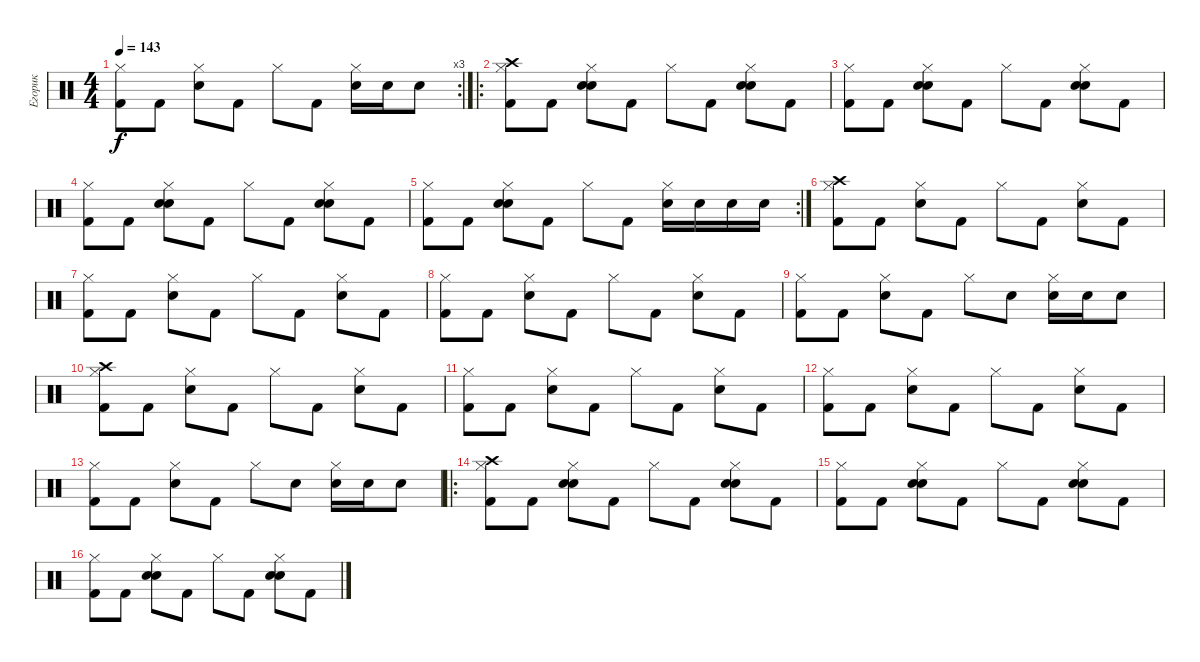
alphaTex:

\track ("Егорик" "Егорик") {instrument percussion}
\staff {score}
\articulation defaults
\rc 3
\ts (4 4)
\tempo 143
\clef neutral
\ks c
("Hi-Hat (closed)" "Kick (hit) 2").8{dy f} "Kick (hit) 2".8 ("Hi-Hat (closed)" "Electric Snare (hit)").8 "Kick (hit) 2".8 "Hi-Hat (closed)".8 "Kick (hit) 2".8 ("Hi-Hat (closed)" "Electric Snare (hit)").16 "Electric Snare (hit)".16 "Electric Snare (hit)".8 |
\ro
("Hi-Hat (closed)" "Crash high (hit)" "Kick (hit) 2").8 "Kick (hit) 2".8 ("Hi-Hat (closed)" "Snare (hit) 2" "Electric Snare (hit)").8 "Kick (hit) 2".8 "Hi-Hat (closed)".8 "Kick (hit) 2".8 ("Hi-Hat (closed)" "Snare (hit) 2" "Electric Snare (hit)").8 "Kick (hit) 2".8 |
("Hi-Hat (closed)" "Kick (hit) 2").8 "Kick (hit) 2".8 ("Hi-Hat (closed)" "Snare (hit) 2" "Electric Snare (hit)").8 "Kick (hit) 2".8 "Hi-Hat (closed)".8 "Kick (hit) 2".8 ("Hi-Hat (closed)" "Snare (hit) 2" "Electric Snare (hit)").8 "Kick (hit) 2".8 |
("Hi-Hat (closed)" "Kick (hit) 2").8 "Kick (hit) 2".8 ("Hi-Hat (closed)" "Snare (hit) 2" "Electric Snare (hit)").8 "Kick (hit) 2".8 "Hi-Hat (closed)".8 "Kick (hit) 2".8 ("Hi-Hat (closed)" "Snare (hit) 2" "Electric Snare (hit)").8 "Kick (hit) 2".8 |
\rc 2
("Hi-Hat (closed)" "Kick (hit) 2").8 "Kick (hit) 2".8 ("Hi-Hat (closed)" "Snare (hit) 2" "Electric Snare (hit)").8 "Kick (hit) 2".8 "Hi-Hat (closed)".8 "Kick (hit) 2".8 ("Hi-Hat (closed)" "Electric Snare (hit)").16 "Electric Snare (hit)".16 "Electric Snare (hit)".16 "Electric Snare (hit)".16 |
("Hi-Hat (closed)" "Crash high (hit)" "Kick (hit) 2").8 "Kick (hit) 2".8 ("Hi-Hat (closed)" "Electric Snare (hit)").8 "Kick (hit) 2".8 "Hi-Hat (closed)".8 "Kick (hit) 2".8 ("Hi-Hat (closed)" "Electric Snare (hit)").8 "Kick (hit) 2".8 |
("Hi-Hat (closed)" "Kick (hit) 2").8 "Kick (hit) 2".8 ("Hi-Hat (closed)" "Electric Snare (hit)").8 "Kick (hit) 2".8 "Hi-Hat (closed)".8 "Kick (hit) 2".8 ("Hi-Hat (closed)" "Electric Snare (hit)").8 "Kick (hit) 2".8 |
("Hi-Hat (closed)" "Kick (hit) 2").8 "Kick (hit) 2".8 ("Hi-Hat (closed)" "Electric Snare (hit)").8 "Kick (hit) 2".8 "Hi-Hat (closed)".8 "Kick (hit) 2".8 ("Hi-Hat (closed)" "Electric Snare (hit)").8 "Kick (hit) 2".8 |
("Hi-Hat (closed)" "Kick (hit) 2").8 "Kick (hit) 2".8 ("Hi-Hat (closed)" "Electric Snare (hit)").8 "Kick (hit) 2".8 "Hi-Hat (closed)".8 "Electric Snare (hit)".8 ("Hi-Hat (closed)" "Electric Snare (hit)").16 "Electric Snare (hit)".16 "Electric Snare (hit)".8 |
("Hi-Hat (closed)" "Crash high (hit)" "Kick (hit) 2").8 "Kick (hit) 2".8 ("Hi-Hat (closed)" "Electric Snare (hit)").8 "Kick (hit) 2".8 "Hi-Hat (closed)".8 "Kick (hit) 2".8 ("Hi-Hat (closed)" "Electric Snare (hit)").8 "Kick (hit) 2".8 |
("Hi-Hat (closed)" "Kick (hit) 2").8 "Kick (hit) 2".8 ("Hi-Hat (closed)" "Electric Snare (hit)").8 "Kick (hit) 2".8 "Hi-Hat (closed)".8 "Kick (hit) 2".8 ("Hi-Hat (closed)" "Electric Snare (hit)").8 "Kick (hit) 2".8 |
("Hi-Hat (closed)" "Kick (hit) 2").8 "Kick (hit) 2".8 ("Hi-Hat (closed)" "Electric Snare (hit)").8 "Kick (hit) 2".8 "Hi-Hat (closed)".8 "Kick (hit) 2".8 ("Hi-Hat (closed)" "Electric Snare (hit)").8 "Kick (hit) 2".8 |
("Hi-Hat (closed)" "Kick (hit) 2").8 "Kick (hit) 2".8 ("Hi-Hat (closed)" "Electric Snare (hit)").8 "Kick (hit) 2".8 "Hi-Hat (closed)".8 "Electric Snare (hit)".8 ("Hi-Hat (closed)" "Electric Snare (hit)").16 "Electric Snare (hit)".16 "Electric Snare (hit)".8 |
\ro
("Hi-Hat (closed)" "Crash high (hit)" "Kick (hit) 2").8 "Kick (hit) 2".8 ("Hi-Hat (closed)" "Snare (hit) 2" "Electric Snare (hit)").8 "Kick (hit) 2".8 "Hi-Hat (closed)".8 "Kick (hit) 2".8 ("Hi-Hat (closed)" "Snare (hit) 2" "Electric Snare (hit)").8 "Kick (hit) 2".8 |
("Hi-Hat (closed)" "Kick (hit) 2").8 "Kick (hit) 2".8 ("Hi-Hat (closed)" "Snare (hit) 2" "Electric Snare (hit)").8 "Kick (hit) 2".8 "Hi-Hat (closed)".8 "Kick (hit) 2".8 ("Hi-Hat (closed)" "Snare (hit) 2" "Electric Snare (hit)").8 "Kick (hit) 2".8 |
("Hi-Hat (closed)" "Kick (hit) 2").8 "Kick (hit) 2".8 ("Hi-Hat (closed)" "Snare (hit) 2" "Electric Snare (hit)").8 "Kick (hit) 2".8 "Hi-Hat (closed)".8 "Kick (hit) 2".8 ("Hi-Hat (closed)" "Snare (hit) 2" "Electric Snare (hit)").8 "Kick (hit) 2".8
